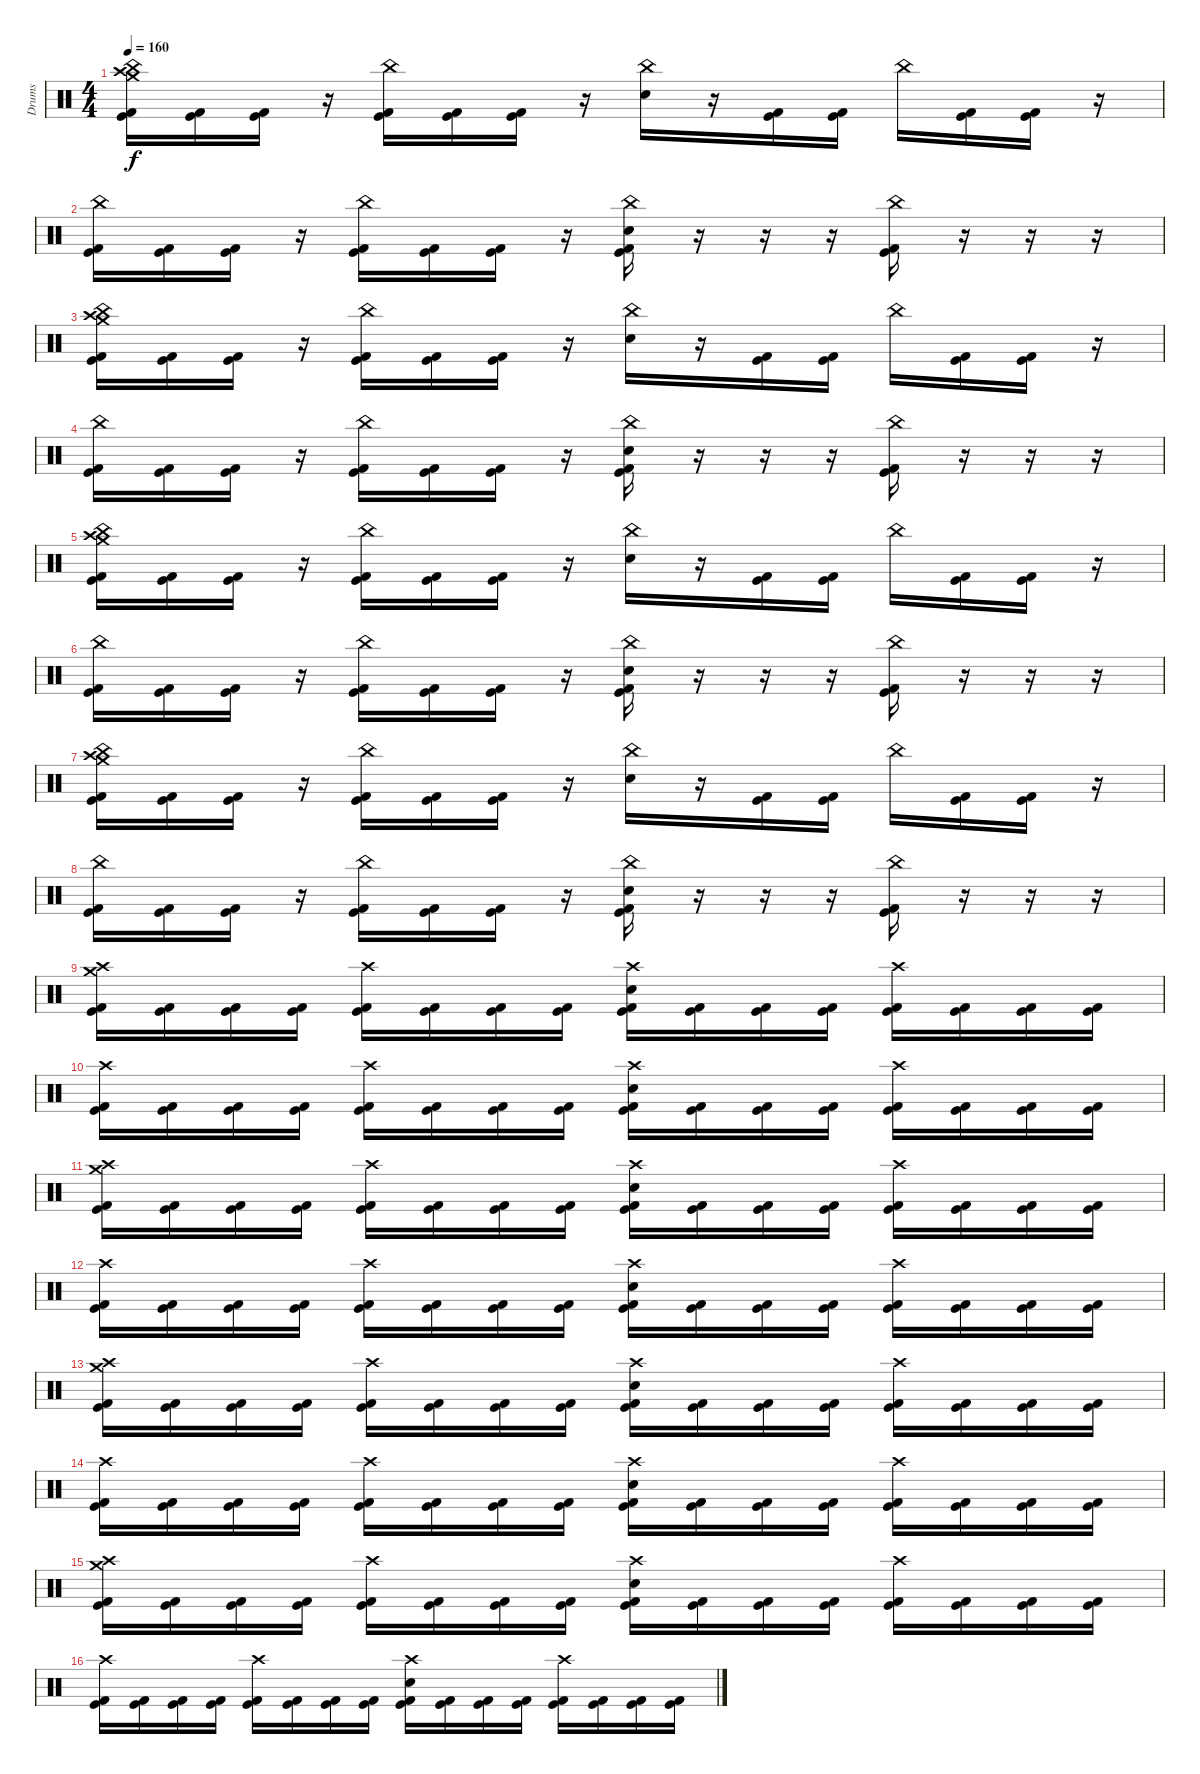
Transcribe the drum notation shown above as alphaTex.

\track ("Drums" "Drums") {instrument percussion}
\staff {score}
\articulation defaults
\ts (4 4)
\tempo 160
\clef neutral
\ks c
("Crash medium (hit)" "Crash high (hit)" "China (hit)" "Kick (hit)" "Kick (hit) 2").16{dy f} ("Kick (hit)" "Kick (hit) 2").16 ("Kick (hit)" "Kick (hit) 2").16 r.16 ("China (hit)" "Kick (hit)" "Kick (hit) 2").16 ("Kick (hit)" "Kick (hit) 2").16 ("Kick (hit)" "Kick (hit) 2").16 r.16 ("China (hit)" "Snare (hit) 2").16 r.16 ("Kick (hit)" "Kick (hit) 2").16 ("Kick (hit)" "Kick (hit) 2").16 "China (hit)".16 ("Kick (hit)" "Kick (hit) 2").16 ("Kick (hit)" "Kick (hit) 2").16 r.16 |
("China (hit)" "Kick (hit)" "Kick (hit) 2").16 ("Kick (hit)" "Kick (hit) 2").16 ("Kick (hit)" "Kick (hit) 2").16 r.16 ("China (hit)" "Kick (hit)" "Kick (hit) 2").16 ("Kick (hit)" "Kick (hit) 2").16 ("Kick (hit)" "Kick (hit) 2").16 r.16 ("China (hit)" "Snare (hit) 2" "Kick (hit)" "Kick (hit) 2").16 r.16 r.16 r.16 ("China (hit)" "Kick (hit)" "Kick (hit) 2").16 r.16 r.16 r.16 |
("Crash medium (hit)" "Crash high (hit)" "China (hit)" "Kick (hit)" "Kick (hit) 2").16 ("Kick (hit)" "Kick (hit) 2").16 ("Kick (hit)" "Kick (hit) 2").16 r.16 ("China (hit)" "Kick (hit)" "Kick (hit) 2").16 ("Kick (hit)" "Kick (hit) 2").16 ("Kick (hit)" "Kick (hit) 2").16 r.16 ("China (hit)" "Snare (hit) 2").16 r.16 ("Kick (hit)" "Kick (hit) 2").16 ("Kick (hit)" "Kick (hit) 2").16 "China (hit)".16 ("Kick (hit)" "Kick (hit) 2").16 ("Kick (hit)" "Kick (hit) 2").16 r.16 |
("China (hit)" "Kick (hit)" "Kick (hit) 2").16 ("Kick (hit)" "Kick (hit) 2").16 ("Kick (hit)" "Kick (hit) 2").16 r.16 ("China (hit)" "Kick (hit)" "Kick (hit) 2").16 ("Kick (hit)" "Kick (hit) 2").16 ("Kick (hit)" "Kick (hit) 2").16 r.16 ("China (hit)" "Snare (hit) 2" "Kick (hit)" "Kick (hit) 2").16 r.16 r.16 r.16 ("China (hit)" "Kick (hit)" "Kick (hit) 2").16 r.16 r.16 r.16 |
("Crash medium (hit)" "Crash high (hit)" "China (hit)" "Kick (hit)" "Kick (hit) 2").16 ("Kick (hit)" "Kick (hit) 2").16 ("Kick (hit)" "Kick (hit) 2").16 r.16 ("China (hit)" "Kick (hit)" "Kick (hit) 2").16 ("Kick (hit)" "Kick (hit) 2").16 ("Kick (hit)" "Kick (hit) 2").16 r.16 ("China (hit)" "Snare (hit) 2").16 r.16 ("Kick (hit)" "Kick (hit) 2").16 ("Kick (hit)" "Kick (hit) 2").16 "China (hit)".16 ("Kick (hit)" "Kick (hit) 2").16 ("Kick (hit)" "Kick (hit) 2").16 r.16 |
("China (hit)" "Kick (hit)" "Kick (hit) 2").16 ("Kick (hit)" "Kick (hit) 2").16 ("Kick (hit)" "Kick (hit) 2").16 r.16 ("China (hit)" "Kick (hit)" "Kick (hit) 2").16 ("Kick (hit)" "Kick (hit) 2").16 ("Kick (hit)" "Kick (hit) 2").16 r.16 ("China (hit)" "Snare (hit) 2" "Kick (hit)" "Kick (hit) 2").16 r.16 r.16 r.16 ("China (hit)" "Kick (hit)" "Kick (hit) 2").16 r.16 r.16 r.16 |
("Crash medium (hit)" "Crash high (hit)" "China (hit)" "Kick (hit)" "Kick (hit) 2").16 ("Kick (hit)" "Kick (hit) 2").16 ("Kick (hit)" "Kick (hit) 2").16 r.16 ("China (hit)" "Kick (hit)" "Kick (hit) 2").16 ("Kick (hit)" "Kick (hit) 2").16 ("Kick (hit)" "Kick (hit) 2").16 r.16 ("China (hit)" "Snare (hit) 2").16 r.16 ("Kick (hit)" "Kick (hit) 2").16 ("Kick (hit)" "Kick (hit) 2").16 "China (hit)".16 ("Kick (hit)" "Kick (hit) 2").16 ("Kick (hit)" "Kick (hit) 2").16 r.16 |
("China (hit)" "Kick (hit)" "Kick (hit) 2").16 ("Kick (hit)" "Kick (hit) 2").16 ("Kick (hit)" "Kick (hit) 2").16 r.16 ("China (hit)" "Kick (hit)" "Kick (hit) 2").16 ("Kick (hit)" "Kick (hit) 2").16 ("Kick (hit)" "Kick (hit) 2").16 r.16 ("China (hit)" "Snare (hit) 2" "Kick (hit)" "Kick (hit) 2").16 r.16 r.16 r.16 ("China (hit)" "Kick (hit)" "Kick (hit) 2").16 r.16 r.16 r.16 |
("Crash medium (hit)" "Crash high (hit)" "Kick (hit)" "Kick (hit) 2").16 ("Kick (hit)" "Kick (hit) 2").16 ("Kick (hit)" "Kick (hit) 2").16 ("Kick (hit)" "Kick (hit) 2").16 ("Crash high (hit)" "Kick (hit)" "Kick (hit) 2").16 ("Kick (hit)" "Kick (hit) 2").16 ("Kick (hit)" "Kick (hit) 2").16 ("Kick (hit)" "Kick (hit) 2").16 ("Crash high (hit)" "Snare (hit) 2" "Kick (hit)" "Kick (hit) 2").16 ("Kick (hit)" "Kick (hit) 2").16 ("Kick (hit)" "Kick (hit) 2").16 ("Kick (hit)" "Kick (hit) 2").16 ("Crash high (hit)" "Kick (hit)" "Kick (hit) 2").16 ("Kick (hit)" "Kick (hit) 2").16 ("Kick (hit)" "Kick (hit) 2").16 ("Kick (hit)" "Kick (hit) 2").16 |
("Crash high (hit)" "Kick (hit)" "Kick (hit) 2").16 ("Kick (hit)" "Kick (hit) 2").16 ("Kick (hit)" "Kick (hit) 2").16 ("Kick (hit)" "Kick (hit) 2").16 ("Crash high (hit)" "Kick (hit)" "Kick (hit) 2").16 ("Kick (hit)" "Kick (hit) 2").16 ("Kick (hit)" "Kick (hit) 2").16 ("Kick (hit)" "Kick (hit) 2").16 ("Crash high (hit)" "Snare (hit) 2" "Kick (hit)" "Kick (hit) 2").16 ("Kick (hit)" "Kick (hit) 2").16 ("Kick (hit)" "Kick (hit) 2").16 ("Kick (hit)" "Kick (hit) 2").16 ("Crash high (hit)" "Kick (hit)" "Kick (hit) 2").16 ("Kick (hit)" "Kick (hit) 2").16 ("Kick (hit)" "Kick (hit) 2").16 ("Kick (hit)" "Kick (hit) 2").16 |
("Crash medium (hit)" "Crash high (hit)" "Kick (hit)" "Kick (hit) 2").16 ("Kick (hit)" "Kick (hit) 2").16 ("Kick (hit)" "Kick (hit) 2").16 ("Kick (hit)" "Kick (hit) 2").16 ("Crash high (hit)" "Kick (hit)" "Kick (hit) 2").16 ("Kick (hit)" "Kick (hit) 2").16 ("Kick (hit)" "Kick (hit) 2").16 ("Kick (hit)" "Kick (hit) 2").16 ("Crash high (hit)" "Snare (hit) 2" "Kick (hit)" "Kick (hit) 2").16 ("Kick (hit)" "Kick (hit) 2").16 ("Kick (hit)" "Kick (hit) 2").16 ("Kick (hit)" "Kick (hit) 2").16 ("Crash high (hit)" "Kick (hit)" "Kick (hit) 2").16 ("Kick (hit)" "Kick (hit) 2").16 ("Kick (hit)" "Kick (hit) 2").16 ("Kick (hit)" "Kick (hit) 2").16 |
("Crash high (hit)" "Kick (hit)" "Kick (hit) 2").16 ("Kick (hit)" "Kick (hit) 2").16 ("Kick (hit)" "Kick (hit) 2").16 ("Kick (hit)" "Kick (hit) 2").16 ("Crash high (hit)" "Kick (hit)" "Kick (hit) 2").16 ("Kick (hit)" "Kick (hit) 2").16 ("Kick (hit)" "Kick (hit) 2").16 ("Kick (hit)" "Kick (hit) 2").16 ("Crash high (hit)" "Snare (hit) 2" "Kick (hit)" "Kick (hit) 2").16 ("Kick (hit)" "Kick (hit) 2").16 ("Kick (hit)" "Kick (hit) 2").16 ("Kick (hit)" "Kick (hit) 2").16 ("Crash high (hit)" "Kick (hit)" "Kick (hit) 2").16 ("Kick (hit)" "Kick (hit) 2").16 ("Kick (hit)" "Kick (hit) 2").16 ("Kick (hit)" "Kick (hit) 2").16 |
("Crash medium (hit)" "Crash high (hit)" "Kick (hit)" "Kick (hit) 2").16 ("Kick (hit)" "Kick (hit) 2").16 ("Kick (hit)" "Kick (hit) 2").16 ("Kick (hit)" "Kick (hit) 2").16 ("Crash high (hit)" "Kick (hit)" "Kick (hit) 2").16 ("Kick (hit)" "Kick (hit) 2").16 ("Kick (hit)" "Kick (hit) 2").16 ("Kick (hit)" "Kick (hit) 2").16 ("Crash high (hit)" "Snare (hit) 2" "Kick (hit)" "Kick (hit) 2").16 ("Kick (hit)" "Kick (hit) 2").16 ("Kick (hit)" "Kick (hit) 2").16 ("Kick (hit)" "Kick (hit) 2").16 ("Crash high (hit)" "Kick (hit)" "Kick (hit) 2").16 ("Kick (hit)" "Kick (hit) 2").16 ("Kick (hit)" "Kick (hit) 2").16 ("Kick (hit)" "Kick (hit) 2").16 |
("Crash high (hit)" "Kick (hit)" "Kick (hit) 2").16 ("Kick (hit)" "Kick (hit) 2").16 ("Kick (hit)" "Kick (hit) 2").16 ("Kick (hit)" "Kick (hit) 2").16 ("Crash high (hit)" "Kick (hit)" "Kick (hit) 2").16 ("Kick (hit)" "Kick (hit) 2").16 ("Kick (hit)" "Kick (hit) 2").16 ("Kick (hit)" "Kick (hit) 2").16 ("Crash high (hit)" "Snare (hit) 2" "Kick (hit)" "Kick (hit) 2").16 ("Kick (hit)" "Kick (hit) 2").16 ("Kick (hit)" "Kick (hit) 2").16 ("Kick (hit)" "Kick (hit) 2").16 ("Crash high (hit)" "Kick (hit)" "Kick (hit) 2").16 ("Kick (hit)" "Kick (hit) 2").16 ("Kick (hit)" "Kick (hit) 2").16 ("Kick (hit)" "Kick (hit) 2").16 |
("Crash medium (hit)" "Crash high (hit)" "Kick (hit)" "Kick (hit) 2").16 ("Kick (hit)" "Kick (hit) 2").16 ("Kick (hit)" "Kick (hit) 2").16 ("Kick (hit)" "Kick (hit) 2").16 ("Crash high (hit)" "Kick (hit)" "Kick (hit) 2").16 ("Kick (hit)" "Kick (hit) 2").16 ("Kick (hit)" "Kick (hit) 2").16 ("Kick (hit)" "Kick (hit) 2").16 ("Crash high (hit)" "Snare (hit) 2" "Kick (hit)" "Kick (hit) 2").16 ("Kick (hit)" "Kick (hit) 2").16 ("Kick (hit)" "Kick (hit) 2").16 ("Kick (hit)" "Kick (hit) 2").16 ("Crash high (hit)" "Kick (hit)" "Kick (hit) 2").16 ("Kick (hit)" "Kick (hit) 2").16 ("Kick (hit)" "Kick (hit) 2").16 ("Kick (hit)" "Kick (hit) 2").16 |
("Crash high (hit)" "Kick (hit)" "Kick (hit) 2").16 ("Kick (hit)" "Kick (hit) 2").16 ("Kick (hit)" "Kick (hit) 2").16 ("Kick (hit)" "Kick (hit) 2").16 ("Crash high (hit)" "Kick (hit)" "Kick (hit) 2").16 ("Kick (hit)" "Kick (hit) 2").16 ("Kick (hit)" "Kick (hit) 2").16 ("Kick (hit)" "Kick (hit) 2").16 ("Crash high (hit)" "Snare (hit) 2" "Kick (hit)" "Kick (hit) 2").16 ("Kick (hit)" "Kick (hit) 2").16 ("Kick (hit)" "Kick (hit) 2").16 ("Kick (hit)" "Kick (hit) 2").16 ("Crash high (hit)" "Kick (hit)" "Kick (hit) 2").16 ("Kick (hit)" "Kick (hit) 2").16 ("Kick (hit)" "Kick (hit) 2").16 ("Kick (hit)" "Kick (hit) 2").16
